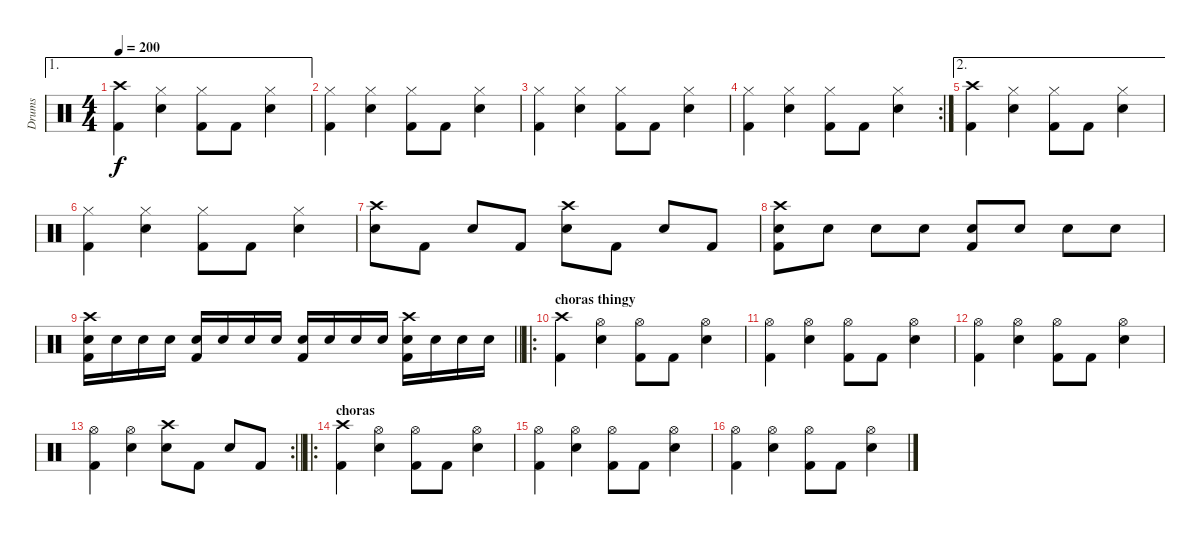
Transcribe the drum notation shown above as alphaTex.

\track ("Drums" "Drums") {instrument percussion}
\staff {score}
\articulation defaults
\ae 1
\ts (4 4)
\tempo 200
\clef neutral
\ks c
("Crash high (hit)" "Kick (hit) 2").4{dy f} ("Hi-Hat (closed)" "Electric Snare (hit)").4 ("Hi-Hat (closed)" "Kick (hit) 2").8 "Kick (hit) 2".8 ("Hi-Hat (closed)" "Electric Snare (hit)").4 |
("Hi-Hat (closed)" "Kick (hit) 2").4 ("Hi-Hat (closed)" "Electric Snare (hit)").4 ("Hi-Hat (closed)" "Kick (hit) 2").8 "Kick (hit) 2".8 ("Hi-Hat (closed)" "Electric Snare (hit)").4 |
("Hi-Hat (closed)" "Kick (hit) 2").4 ("Hi-Hat (closed)" "Electric Snare (hit)").4 ("Hi-Hat (closed)" "Kick (hit) 2").8 "Kick (hit) 2".8 ("Hi-Hat (closed)" "Electric Snare (hit)").4 |
\rc 2
("Hi-Hat (closed)" "Kick (hit) 2").4 ("Hi-Hat (closed)" "Electric Snare (hit)").4 ("Hi-Hat (closed)" "Kick (hit) 2").8 "Kick (hit) 2".8 ("Hi-Hat (closed)" "Electric Snare (hit)").4 |
\ae 2
("Crash high (hit)" "Kick (hit) 2").4 ("Hi-Hat (closed)" "Electric Snare (hit)").4 ("Hi-Hat (closed)" "Kick (hit) 2").8 "Kick (hit) 2".8 ("Hi-Hat (closed)" "Electric Snare (hit)").4 |
("Hi-Hat (closed)" "Kick (hit) 2").4 ("Hi-Hat (closed)" "Electric Snare (hit)").4 ("Hi-Hat (closed)" "Kick (hit) 2").8 "Kick (hit) 2".8 ("Hi-Hat (closed)" "Electric Snare (hit)").4 |
("Crash high (hit)" "Electric Snare (hit)").8 "Kick (hit) 2".8 "Electric Snare (hit)".8 "Kick (hit) 2".8 ("Crash high (hit)" "Electric Snare (hit)").8 "Kick (hit) 2".8 "Electric Snare (hit)".8 "Kick (hit) 2".8 |
("Crash high (hit)" "Kick (hit) 2" "Electric Snare (hit)").8 "Electric Snare (hit)".8 "Electric Snare (hit)".8 "Electric Snare (hit)".8 ("Kick (hit) 2" "Electric Snare (hit)").8 "Electric Snare (hit)".8 "Electric Snare (hit)".8 "Electric Snare (hit)".8 |
\barLineRight lightlight
("Crash high (hit)" "Kick (hit) 2" "Electric Snare (hit)").16 "Electric Snare (hit)".16 "Electric Snare (hit)".16 "Electric Snare (hit)".16 ("Kick (hit) 2" "Electric Snare (hit)").16 "Electric Snare (hit)".16 "Electric Snare (hit)".16 "Electric Snare (hit)".16 ("Kick (hit) 2" "Electric Snare (hit)").16 "Electric Snare (hit)".16 "Electric Snare (hit)".16 "Electric Snare (hit)".16 ("Crash high (hit)" "Kick (hit) 2" "Electric Snare (hit)").16 "Electric Snare (hit)".16 "Electric Snare (hit)".16 "Electric Snare (hit)".16 |
\ro
\section ("" "choras thingy")
("Crash high (hit)" "Kick (hit) 2").4 ("Hi-Hat (open)" "Electric Snare (hit)").4 ("Hi-Hat (open)" "Kick (hit) 2").8 "Kick (hit) 2".8 ("Hi-Hat (open)" "Electric Snare (hit)").4 |
("Hi-Hat (open)" "Kick (hit) 2").4 ("Hi-Hat (open)" "Electric Snare (hit)").4 ("Hi-Hat (open)" "Kick (hit) 2").8 "Kick (hit) 2".8 ("Hi-Hat (open)" "Electric Snare (hit)").4 |
("Hi-Hat (open)" "Kick (hit) 2").4 ("Hi-Hat (open)" "Electric Snare (hit)").4 ("Hi-Hat (open)" "Kick (hit) 2").8 "Kick (hit) 2".8 ("Hi-Hat (open)" "Electric Snare (hit)").4 |
\rc 2
\barLineRight lightlight
("Hi-Hat (open)" "Kick (hit) 2").4 ("Hi-Hat (open)" "Electric Snare (hit)").4 ("Crash high (hit)" "Electric Snare (hit)").8 "Kick (hit) 2".8 "Electric Snare (hit)".8 "Kick (hit) 2".8 |
\ro
\section ("" "choras")
("Crash high (hit)" "Kick (hit) 2").4 ("Hi-Hat (open)" "Electric Snare (hit)").4 ("Hi-Hat (open)" "Kick (hit) 2").8 "Kick (hit) 2".8 ("Hi-Hat (open)" "Electric Snare (hit)").4 |
("Hi-Hat (open)" "Kick (hit) 2").4 ("Hi-Hat (open)" "Electric Snare (hit)").4 ("Hi-Hat (open)" "Kick (hit) 2").8 "Kick (hit) 2".8 ("Hi-Hat (open)" "Electric Snare (hit)").4 |
("Hi-Hat (open)" "Kick (hit) 2").4 ("Hi-Hat (open)" "Electric Snare (hit)").4 ("Hi-Hat (open)" "Kick (hit) 2").8 "Kick (hit) 2".8 ("Hi-Hat (open)" "Electric Snare (hit)").4
